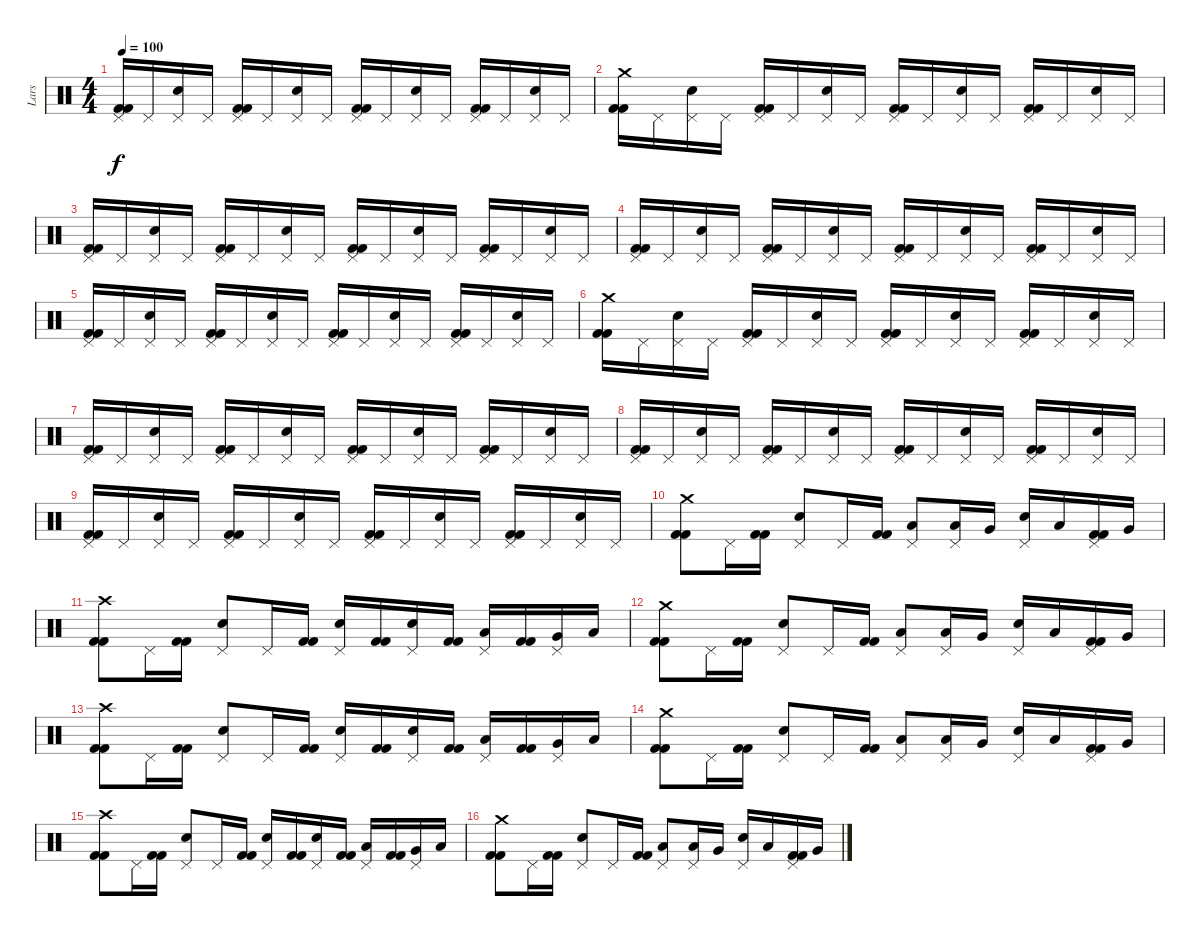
\track ("Lars" "Lars") {instrument percussion}
\staff {score}
\articulation defaults
\ts (4 4)
\tempo 100
\clef neutral
\ks c
("Kick (hit) 2" "Kick (hit) 2" "Pedal Hi-Hat (hit)").16{dy f} "Pedal Hi-Hat (hit)".16 ("Electric Snare (hit)" "Pedal Hi-Hat (hit)").16 "Pedal Hi-Hat (hit)".16 ("Kick (hit) 2" "Kick (hit) 2" "Pedal Hi-Hat (hit)").16 "Pedal Hi-Hat (hit)".16 ("Electric Snare (hit)" "Pedal Hi-Hat (hit)").16 "Pedal Hi-Hat (hit)".16 ("Kick (hit) 2" "Kick (hit) 2" "Pedal Hi-Hat (hit)").16 "Pedal Hi-Hat (hit)".16 ("Electric Snare (hit)" "Pedal Hi-Hat (hit)").16 "Pedal Hi-Hat (hit)".16 ("Kick (hit) 2" "Kick (hit) 2" "Pedal Hi-Hat (hit)").16 "Pedal Hi-Hat (hit)".16 ("Electric Snare (hit)" "Pedal Hi-Hat (hit)").16 "Pedal Hi-Hat (hit)".16 |
("Kick (hit) 2" "Kick (hit) 2" "Crash medium (hit)").16 "Pedal Hi-Hat (hit)".16 ("Electric Snare (hit)" "Pedal Hi-Hat (hit)").16 "Pedal Hi-Hat (hit)".16 ("Kick (hit) 2" "Kick (hit) 2" "Pedal Hi-Hat (hit)").16 "Pedal Hi-Hat (hit)".16 ("Electric Snare (hit)" "Pedal Hi-Hat (hit)").16 "Pedal Hi-Hat (hit)".16 ("Kick (hit) 2" "Kick (hit) 2" "Pedal Hi-Hat (hit)").16 "Pedal Hi-Hat (hit)".16 ("Electric Snare (hit)" "Pedal Hi-Hat (hit)").16 "Pedal Hi-Hat (hit)".16 ("Kick (hit) 2" "Kick (hit) 2" "Pedal Hi-Hat (hit)").16 "Pedal Hi-Hat (hit)".16 ("Electric Snare (hit)" "Pedal Hi-Hat (hit)").16 "Pedal Hi-Hat (hit)".16 |
("Kick (hit) 2" "Kick (hit) 2" "Pedal Hi-Hat (hit)").16 "Pedal Hi-Hat (hit)".16 ("Electric Snare (hit)" "Pedal Hi-Hat (hit)").16 "Pedal Hi-Hat (hit)".16 ("Kick (hit) 2" "Kick (hit) 2" "Pedal Hi-Hat (hit)").16 "Pedal Hi-Hat (hit)".16 ("Electric Snare (hit)" "Pedal Hi-Hat (hit)").16 "Pedal Hi-Hat (hit)".16 ("Kick (hit) 2" "Kick (hit) 2" "Pedal Hi-Hat (hit)").16 "Pedal Hi-Hat (hit)".16 ("Electric Snare (hit)" "Pedal Hi-Hat (hit)").16 "Pedal Hi-Hat (hit)".16 ("Kick (hit) 2" "Kick (hit) 2" "Pedal Hi-Hat (hit)").16 "Pedal Hi-Hat (hit)".16 ("Electric Snare (hit)" "Pedal Hi-Hat (hit)").16 "Pedal Hi-Hat (hit)".16 |
("Kick (hit) 2" "Kick (hit) 2" "Pedal Hi-Hat (hit)").16 "Pedal Hi-Hat (hit)".16 ("Electric Snare (hit)" "Pedal Hi-Hat (hit)").16 "Pedal Hi-Hat (hit)".16 ("Kick (hit) 2" "Kick (hit) 2" "Pedal Hi-Hat (hit)").16 "Pedal Hi-Hat (hit)".16 ("Electric Snare (hit)" "Pedal Hi-Hat (hit)").16 "Pedal Hi-Hat (hit)".16 ("Kick (hit) 2" "Kick (hit) 2" "Pedal Hi-Hat (hit)").16 "Pedal Hi-Hat (hit)".16 ("Electric Snare (hit)" "Pedal Hi-Hat (hit)").16 "Pedal Hi-Hat (hit)".16 ("Kick (hit) 2" "Kick (hit) 2" "Pedal Hi-Hat (hit)").16 "Pedal Hi-Hat (hit)".16 ("Electric Snare (hit)" "Pedal Hi-Hat (hit)").16 "Pedal Hi-Hat (hit)".16 |
("Kick (hit) 2" "Kick (hit) 2" "Pedal Hi-Hat (hit)").16 "Pedal Hi-Hat (hit)".16 ("Electric Snare (hit)" "Pedal Hi-Hat (hit)").16 "Pedal Hi-Hat (hit)".16 ("Kick (hit) 2" "Kick (hit) 2" "Pedal Hi-Hat (hit)").16 "Pedal Hi-Hat (hit)".16 ("Electric Snare (hit)" "Pedal Hi-Hat (hit)").16 "Pedal Hi-Hat (hit)".16 ("Kick (hit) 2" "Kick (hit) 2" "Pedal Hi-Hat (hit)").16 "Pedal Hi-Hat (hit)".16 ("Electric Snare (hit)" "Pedal Hi-Hat (hit)").16 "Pedal Hi-Hat (hit)".16 ("Kick (hit) 2" "Kick (hit) 2" "Pedal Hi-Hat (hit)").16 "Pedal Hi-Hat (hit)".16 ("Electric Snare (hit)" "Pedal Hi-Hat (hit)").16 "Pedal Hi-Hat (hit)".16 |
("Kick (hit) 2" "Kick (hit) 2" "Crash medium (hit)").16 "Pedal Hi-Hat (hit)".16 ("Electric Snare (hit)" "Pedal Hi-Hat (hit)").16 "Pedal Hi-Hat (hit)".16 ("Kick (hit) 2" "Kick (hit) 2" "Pedal Hi-Hat (hit)").16 "Pedal Hi-Hat (hit)".16 ("Electric Snare (hit)" "Pedal Hi-Hat (hit)").16 "Pedal Hi-Hat (hit)".16 ("Kick (hit) 2" "Kick (hit) 2" "Pedal Hi-Hat (hit)").16 "Pedal Hi-Hat (hit)".16 ("Electric Snare (hit)" "Pedal Hi-Hat (hit)").16 "Pedal Hi-Hat (hit)".16 ("Kick (hit) 2" "Kick (hit) 2" "Pedal Hi-Hat (hit)").16 "Pedal Hi-Hat (hit)".16 ("Electric Snare (hit)" "Pedal Hi-Hat (hit)").16 "Pedal Hi-Hat (hit)".16 |
("Kick (hit) 2" "Kick (hit) 2" "Pedal Hi-Hat (hit)").16 "Pedal Hi-Hat (hit)".16 ("Electric Snare (hit)" "Pedal Hi-Hat (hit)").16 "Pedal Hi-Hat (hit)".16 ("Kick (hit) 2" "Kick (hit) 2" "Pedal Hi-Hat (hit)").16 "Pedal Hi-Hat (hit)".16 ("Electric Snare (hit)" "Pedal Hi-Hat (hit)").16 "Pedal Hi-Hat (hit)".16 ("Kick (hit) 2" "Kick (hit) 2" "Pedal Hi-Hat (hit)").16 "Pedal Hi-Hat (hit)".16 ("Electric Snare (hit)" "Pedal Hi-Hat (hit)").16 "Pedal Hi-Hat (hit)".16 ("Kick (hit) 2" "Kick (hit) 2" "Pedal Hi-Hat (hit)").16 "Pedal Hi-Hat (hit)".16 ("Electric Snare (hit)" "Pedal Hi-Hat (hit)").16 "Pedal Hi-Hat (hit)".16 |
("Kick (hit) 2" "Kick (hit) 2" "Pedal Hi-Hat (hit)").16 "Pedal Hi-Hat (hit)".16 ("Electric Snare (hit)" "Pedal Hi-Hat (hit)").16 "Pedal Hi-Hat (hit)".16 ("Kick (hit) 2" "Kick (hit) 2" "Pedal Hi-Hat (hit)").16 "Pedal Hi-Hat (hit)".16 ("Electric Snare (hit)" "Pedal Hi-Hat (hit)").16 "Pedal Hi-Hat (hit)".16 ("Kick (hit) 2" "Kick (hit) 2" "Pedal Hi-Hat (hit)").16 "Pedal Hi-Hat (hit)".16 ("Electric Snare (hit)" "Pedal Hi-Hat (hit)").16 "Pedal Hi-Hat (hit)".16 ("Kick (hit) 2" "Kick (hit) 2" "Pedal Hi-Hat (hit)").16 "Pedal Hi-Hat (hit)".16 ("Electric Snare (hit)" "Pedal Hi-Hat (hit)").16 "Pedal Hi-Hat (hit)".16 |
("Kick (hit) 2" "Kick (hit) 2" "Pedal Hi-Hat (hit)").16 "Pedal Hi-Hat (hit)".16 ("Electric Snare (hit)" "Pedal Hi-Hat (hit)").16 "Pedal Hi-Hat (hit)".16 ("Kick (hit) 2" "Kick (hit) 2" "Pedal Hi-Hat (hit)").16 "Pedal Hi-Hat (hit)".16 ("Electric Snare (hit)" "Pedal Hi-Hat (hit)").16 "Pedal Hi-Hat (hit)".16 ("Kick (hit) 2" "Kick (hit) 2" "Pedal Hi-Hat (hit)").16 "Pedal Hi-Hat (hit)".16 ("Electric Snare (hit)" "Pedal Hi-Hat (hit)").16 "Pedal Hi-Hat (hit)".16 ("Kick (hit) 2" "Kick (hit) 2" "Pedal Hi-Hat (hit)").16 "Pedal Hi-Hat (hit)".16 ("Electric Snare (hit)" "Pedal Hi-Hat (hit)").16 "Pedal Hi-Hat (hit)".16 |
("Kick (hit) 2" "Kick (hit) 2" "Crash medium (hit)").8 "Pedal Hi-Hat (hit)".16 ("Kick (hit) 2" "Kick (hit) 2").16 ("Electric Snare (hit)" "Pedal Hi-Hat (hit)").8 "Pedal Hi-Hat (hit)".16 ("Kick (hit) 2" "Kick (hit) 2").16 ("Low Tom (hit)" "Pedal Hi-Hat (hit)").8 ("Low Tom (hit)" "Pedal Hi-Hat (hit)").16 "Very Low Tom (hit)".16 ("Electric Snare (hit)" "Pedal Hi-Hat (hit)").16 "Low Floor Tom (hit)".16 ("Kick (hit) 2" "Kick (hit) 2" "Pedal Hi-Hat (hit)").16 "Very Low Tom (hit)".16 |
("Kick (hit) 2" "Kick (hit) 2" "Crash high (hit)").8 "Pedal Hi-Hat (hit)".16 ("Kick (hit) 2" "Kick (hit) 2").16 ("Electric Snare (hit)" "Pedal Hi-Hat (hit)").8 "Pedal Hi-Hat (hit)".16 ("Kick (hit) 2" "Kick (hit) 2").16 ("Electric Snare (hit)" "Pedal Hi-Hat (hit)").16 ("Kick (hit) 2" "Kick (hit) 2").16 ("Electric Snare (hit)" "Pedal Hi-Hat (hit)").16 ("Kick (hit) 2" "Kick (hit) 2").16 ("Low Floor Tom (hit)" "Pedal Hi-Hat (hit)").16 ("Kick (hit) 2" "Kick (hit) 2").16 ("Very Low Tom (hit)" "Pedal Hi-Hat (hit)").16 "Low Tom (hit)".16 |
("Kick (hit) 2" "Kick (hit) 2" "Crash medium (hit)").8 "Pedal Hi-Hat (hit)".16 ("Kick (hit) 2" "Kick (hit) 2").16 ("Electric Snare (hit)" "Pedal Hi-Hat (hit)").8 "Pedal Hi-Hat (hit)".16 ("Kick (hit) 2" "Kick (hit) 2").16 ("Low Tom (hit)" "Pedal Hi-Hat (hit)").8 ("Low Tom (hit)" "Pedal Hi-Hat (hit)").16 "Very Low Tom (hit)".16 ("Electric Snare (hit)" "Pedal Hi-Hat (hit)").16 "Low Floor Tom (hit)".16 ("Kick (hit) 2" "Kick (hit) 2" "Pedal Hi-Hat (hit)").16 "Very Low Tom (hit)".16 |
("Kick (hit) 2" "Kick (hit) 2" "Crash high (hit)").8 "Pedal Hi-Hat (hit)".16 ("Kick (hit) 2" "Kick (hit) 2").16 ("Electric Snare (hit)" "Pedal Hi-Hat (hit)").8 "Pedal Hi-Hat (hit)".16 ("Kick (hit) 2" "Kick (hit) 2").16 ("Electric Snare (hit)" "Pedal Hi-Hat (hit)").16 ("Kick (hit) 2" "Kick (hit) 2").16 ("Electric Snare (hit)" "Pedal Hi-Hat (hit)").16 ("Kick (hit) 2" "Kick (hit) 2").16 ("Low Floor Tom (hit)" "Pedal Hi-Hat (hit)").16 ("Kick (hit) 2" "Kick (hit) 2").16 ("Very Low Tom (hit)" "Pedal Hi-Hat (hit)").16 "Low Tom (hit)".16 |
("Kick (hit) 2" "Kick (hit) 2" "Crash medium (hit)").8 "Pedal Hi-Hat (hit)".16 ("Kick (hit) 2" "Kick (hit) 2").16 ("Electric Snare (hit)" "Pedal Hi-Hat (hit)").8 "Pedal Hi-Hat (hit)".16 ("Kick (hit) 2" "Kick (hit) 2").16 ("Low Tom (hit)" "Pedal Hi-Hat (hit)").8 ("Low Tom (hit)" "Pedal Hi-Hat (hit)").16 "Very Low Tom (hit)".16 ("Electric Snare (hit)" "Pedal Hi-Hat (hit)").16 "Low Floor Tom (hit)".16 ("Kick (hit) 2" "Kick (hit) 2" "Pedal Hi-Hat (hit)").16 "Very Low Tom (hit)".16 |
("Kick (hit) 2" "Kick (hit) 2" "Crash high (hit)").8 "Pedal Hi-Hat (hit)".16 ("Kick (hit) 2" "Kick (hit) 2").16 ("Electric Snare (hit)" "Pedal Hi-Hat (hit)").8 "Pedal Hi-Hat (hit)".16 ("Kick (hit) 2" "Kick (hit) 2").16 ("Electric Snare (hit)" "Pedal Hi-Hat (hit)").16 ("Kick (hit) 2" "Kick (hit) 2").16 ("Electric Snare (hit)" "Pedal Hi-Hat (hit)").16 ("Kick (hit) 2" "Kick (hit) 2").16 ("Low Floor Tom (hit)" "Pedal Hi-Hat (hit)").16 ("Kick (hit) 2" "Kick (hit) 2").16 ("Very Low Tom (hit)" "Pedal Hi-Hat (hit)").16 "Low Tom (hit)".16 |
("Kick (hit) 2" "Kick (hit) 2" "Crash medium (hit)").8 "Pedal Hi-Hat (hit)".16 ("Kick (hit) 2" "Kick (hit) 2").16 ("Electric Snare (hit)" "Pedal Hi-Hat (hit)").8 "Pedal Hi-Hat (hit)".16 ("Kick (hit) 2" "Kick (hit) 2").16 ("Low Tom (hit)" "Pedal Hi-Hat (hit)").8 ("Low Tom (hit)" "Pedal Hi-Hat (hit)").16 "Very Low Tom (hit)".16 ("Electric Snare (hit)" "Pedal Hi-Hat (hit)").16 "Low Floor Tom (hit)".16 ("Kick (hit) 2" "Kick (hit) 2" "Pedal Hi-Hat (hit)").16 "Very Low Tom (hit)".16
